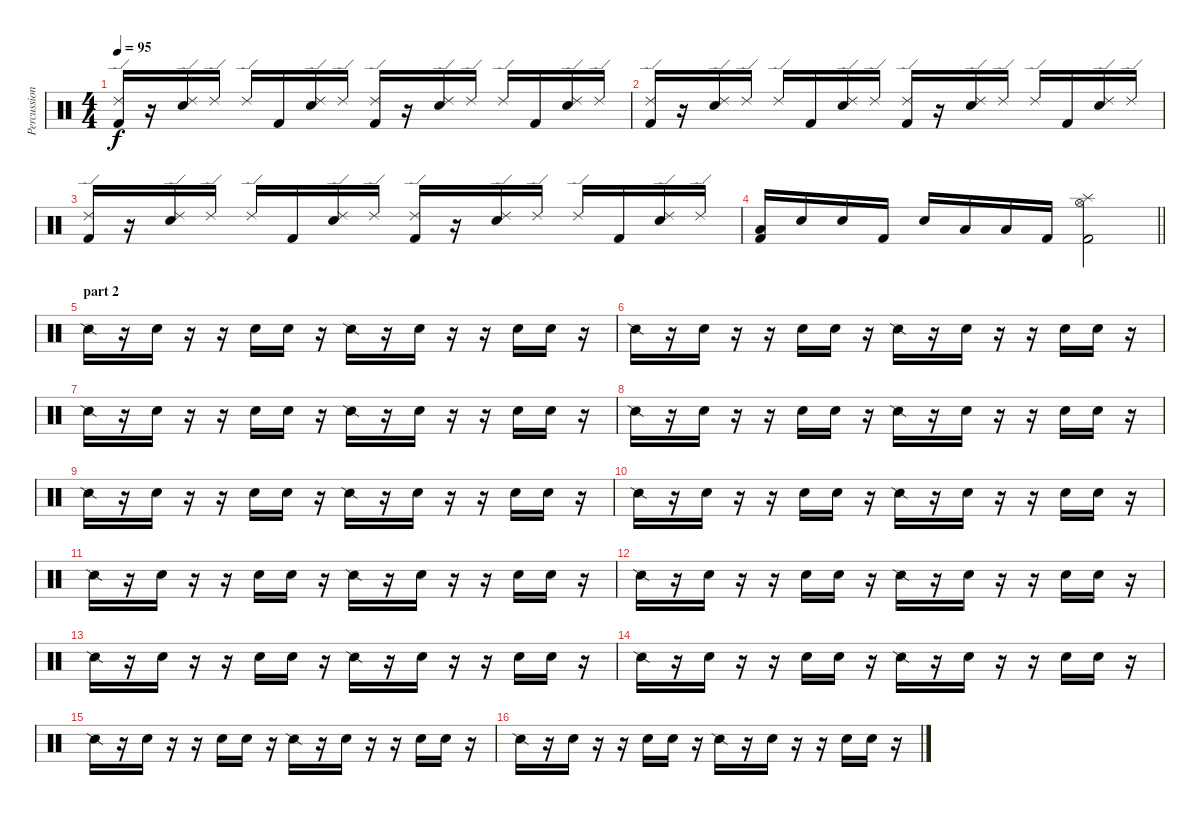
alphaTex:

\track ("Percussion" "Percussion") {instrument percussion}
\staff {score}
\articulation defaults
\ts (4 4)
\tempo 95
\clef neutral
\ks c
("Ride (edge) 2" "Kick (hit) 2").16{dy f} r.16 ("Ride (edge) 2" "Electric Snare (hit)").16 "Ride (edge) 2".16 "Ride (edge) 2".16 "Kick (hit) 2".16 ("Ride (edge) 2" "Electric Snare (hit)").16 "Ride (edge) 2".16 ("Ride (edge) 2" "Kick (hit) 2").16 r.16 ("Ride (edge) 2" "Electric Snare (hit)").16 "Ride (edge) 2".16 "Ride (edge) 2".16 "Kick (hit) 2".16 ("Ride (edge) 2" "Electric Snare (hit)").16 "Ride (edge) 2".16 |
("Ride (edge) 2" "Kick (hit) 2").16 r.16 ("Ride (edge) 2" "Electric Snare (hit)").16 "Ride (edge) 2".16 "Ride (edge) 2".16 "Kick (hit) 2".16 ("Ride (edge) 2" "Electric Snare (hit)").16 "Ride (edge) 2".16 ("Ride (edge) 2" "Kick (hit) 2").16 r.16 ("Ride (edge) 2" "Electric Snare (hit)").16 "Ride (edge) 2".16 "Ride (edge) 2".16 "Kick (hit) 2".16 ("Ride (edge) 2" "Electric Snare (hit)").16 "Ride (edge) 2".16 |
("Ride (edge) 2" "Kick (hit) 2").16 r.16 ("Ride (edge) 2" "Electric Snare (hit)").16 "Ride (edge) 2".16 "Ride (edge) 2".16 "Kick (hit) 2".16 ("Ride (edge) 2" "Electric Snare (hit)").16 "Ride (edge) 2".16 ("Ride (edge) 2" "Kick (hit) 2").16 r.16 ("Ride (edge) 2" "Electric Snare (hit)").16 "Ride (edge) 2".16 "Ride (edge) 2".16 "Kick (hit) 2".16 ("Ride (edge) 2" "Electric Snare (hit)").16 "Ride (edge) 2".16 |
\barLineRight lightlight
("Low Tom (hit)" "Kick (hit) 2").16 "Electric Snare (hit)".16 "Electric Snare (hit)".16 "Kick (hit) 2".16 "Electric Snare (hit)".16 "Low Tom (hit)".16 "Low Tom (hit)".16 "Kick (hit) 2".16 ("Splash (hit)" "Hi-Hat (open)" "Kick (hit) 2").2 |
\section ("" "part 2")
"Snare (side stick) 2".16{balance 3} r.16 "Electric Snare (hit)".16 r.16 r.16 "Electric Snare (hit)".16 "Electric Snare (hit)".16 r.16 "Snare (side stick) 2".16 r.16 "Electric Snare (hit)".16 r.16 r.16 "Electric Snare (hit)".16 "Electric Snare (hit)".16 r.16 |
"Snare (side stick) 2".16 r.16 "Electric Snare (hit)".16 r.16 r.16 "Electric Snare (hit)".16 "Electric Snare (hit)".16 r.16 "Snare (side stick) 2".16 r.16 "Electric Snare (hit)".16 r.16 r.16 "Electric Snare (hit)".16 "Electric Snare (hit)".16 r.16 |
"Snare (side stick) 2".16 r.16 "Electric Snare (hit)".16 r.16 r.16 "Electric Snare (hit)".16 "Electric Snare (hit)".16 r.16 "Snare (side stick) 2".16 r.16 "Electric Snare (hit)".16 r.16 r.16 "Electric Snare (hit)".16 "Electric Snare (hit)".16 r.16 |
"Snare (side stick) 2".16 r.16 "Electric Snare (hit)".16 r.16 r.16 "Electric Snare (hit)".16 "Electric Snare (hit)".16 r.16 "Snare (side stick) 2".16 r.16 "Electric Snare (hit)".16 r.16 r.16 "Electric Snare (hit)".16 "Electric Snare (hit)".16 r.16 |
"Snare (side stick) 2".16{balance 3} r.16 "Electric Snare (hit)".16 r.16 r.16 "Electric Snare (hit)".16 "Electric Snare (hit)".16 r.16 "Snare (side stick) 2".16 r.16 "Electric Snare (hit)".16 r.16 r.16 "Electric Snare (hit)".16 "Electric Snare (hit)".16 r.16 |
"Snare (side stick) 2".16 r.16 "Electric Snare (hit)".16 r.16 r.16 "Electric Snare (hit)".16 "Electric Snare (hit)".16 r.16 "Snare (side stick) 2".16 r.16 "Electric Snare (hit)".16 r.16 r.16 "Electric Snare (hit)".16 "Electric Snare (hit)".16 r.16 |
"Snare (side stick) 2".16 r.16 "Electric Snare (hit)".16 r.16 r.16 "Electric Snare (hit)".16 "Electric Snare (hit)".16 r.16 "Snare (side stick) 2".16 r.16 "Electric Snare (hit)".16 r.16 r.16 "Electric Snare (hit)".16 "Electric Snare (hit)".16 r.16 |
"Snare (side stick) 2".16 r.16 "Electric Snare (hit)".16 r.16 r.16 "Electric Snare (hit)".16 "Electric Snare (hit)".16 r.16 "Snare (side stick) 2".16 r.16 "Electric Snare (hit)".16 r.16 r.16 "Electric Snare (hit)".16 "Electric Snare (hit)".16 r.16 |
"Snare (side stick) 2".16{balance 3} r.16 "Electric Snare (hit)".16 r.16 r.16 "Electric Snare (hit)".16 "Electric Snare (hit)".16 r.16 "Snare (side stick) 2".16 r.16 "Electric Snare (hit)".16 r.16 r.16 "Electric Snare (hit)".16 "Electric Snare (hit)".16 r.16 |
"Snare (side stick) 2".16 r.16 "Electric Snare (hit)".16 r.16 r.16 "Electric Snare (hit)".16 "Electric Snare (hit)".16 r.16 "Snare (side stick) 2".16 r.16 "Electric Snare (hit)".16 r.16 r.16 "Electric Snare (hit)".16 "Electric Snare (hit)".16 r.16 |
"Snare (side stick) 2".16 r.16 "Electric Snare (hit)".16 r.16 r.16 "Electric Snare (hit)".16 "Electric Snare (hit)".16 r.16 "Snare (side stick) 2".16 r.16 "Electric Snare (hit)".16 r.16 r.16 "Electric Snare (hit)".16 "Electric Snare (hit)".16 r.16 |
"Snare (side stick) 2".16 r.16 "Electric Snare (hit)".16 r.16 r.16 "Electric Snare (hit)".16 "Electric Snare (hit)".16 r.16 "Snare (side stick) 2".16 r.16 "Electric Snare (hit)".16 r.16 r.16 "Electric Snare (hit)".16 "Electric Snare (hit)".16 r.16
